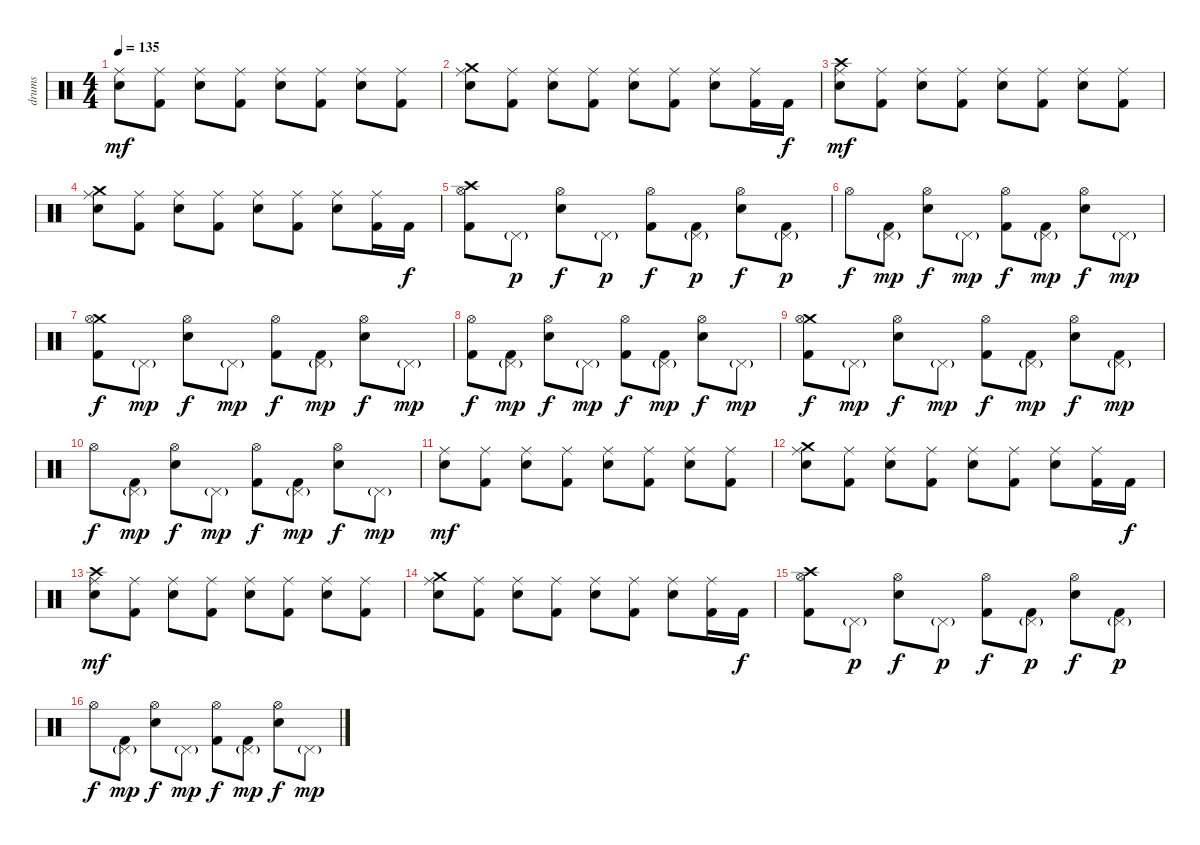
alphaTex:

\track ("drums" "drums") {instrument percussion}
\staff {score}
\articulation defaults
\ts (4 4)
\tempo 135
\clef neutral
\ks c
("Ride (middle)" "Snare (hit) 2").8{dy mf} ("Ride (middle)" "Kick (hit) 2").8 ("Ride (middle)" "Snare (hit) 2").8 ("Ride (middle)" "Kick (hit) 2").8 ("Ride (middle)" "Snare (hit) 2").8 ("Ride (middle)" "Kick (hit) 2").8 ("Ride (middle)" "Snare (hit) 2").8 ("Ride (middle)" "Kick (hit) 2").8 |
("Crash medium (hit)" "Ride (middle)" "Snare (hit) 2").8 ("Ride (middle)" "Kick (hit) 2").8 ("Ride (middle)" "Snare (hit) 2").8 ("Ride (middle)" "Kick (hit) 2").8 ("Ride (middle)" "Snare (hit) 2").8 ("Ride (middle)" "Kick (hit) 2").8 ("Ride (middle)" "Snare (hit) 2").8 ("Ride (middle)" "Kick (hit) 2").16 "Kick (hit) 2".16{dy f} |
("Crash high (hit)" "Ride (middle)" "Snare (hit) 2").8{dy mf} ("Ride (middle)" "Kick (hit) 2").8 ("Ride (middle)" "Snare (hit) 2").8 ("Ride (middle)" "Kick (hit) 2").8 ("Ride (middle)" "Snare (hit) 2").8 ("Ride (middle)" "Kick (hit) 2").8 ("Ride (middle)" "Snare (hit) 2").8 ("Ride (middle)" "Kick (hit) 2").8 |
("Crash medium (hit)" "Ride (middle)" "Snare (hit) 2").8 ("Ride (middle)" "Kick (hit) 2").8 ("Ride (middle)" "Snare (hit) 2").8 ("Ride (middle)" "Kick (hit) 2").8 ("Ride (middle)" "Snare (hit) 2").8 ("Ride (middle)" "Kick (hit) 2").8 ("Ride (middle)" "Snare (hit) 2").8 ("Ride (middle)" "Kick (hit) 2").16 "Kick (hit) 2".16{dy f} |
("Crash high (hit)" "Hi-Hat (open)" "Kick (hit) 2").8 "Pedal Hi-Hat (hit)"{g}.8{dy p} ("Hi-Hat (open)" "Snare (hit) 2").8{dy f} "Pedal Hi-Hat (hit)"{g}.8{dy p} ("Hi-Hat (open)" "Kick (hit) 2").8{dy f} ("Pedal Hi-Hat (hit)"{g} "Kick (hit) 2").8{dy p} ("Hi-Hat (open)" "Snare (hit) 2").8{dy f} ("Pedal Hi-Hat (hit)"{g} "Kick (hit) 2").8{dy p} |
"Hi-Hat (open)".8{dy f} ("Pedal Hi-Hat (hit)"{g} "Kick (hit) 2").8{dy mp} ("Hi-Hat (open)" "Snare (hit) 2").8{dy f} "Pedal Hi-Hat (hit)"{g}.8{dy mp} ("Hi-Hat (open)" "Kick (hit) 2").8{dy f} ("Pedal Hi-Hat (hit)"{g} "Kick (hit) 2").8{dy mp} ("Hi-Hat (open)" "Snare (hit) 2").8{dy f} "Pedal Hi-Hat (hit)"{g}.8{dy mp} |
("Crash medium (hit)" "Hi-Hat (open)" "Kick (hit) 2").8{dy f} "Pedal Hi-Hat (hit)"{g}.8{dy mp} ("Hi-Hat (open)" "Snare (hit) 2").8{dy f} "Pedal Hi-Hat (hit)"{g}.8{dy mp} ("Hi-Hat (open)" "Kick (hit) 2").8{dy f} ("Pedal Hi-Hat (hit)"{g} "Kick (hit) 2").8{dy mp} ("Hi-Hat (open)" "Snare (hit) 2").8{dy f} "Pedal Hi-Hat (hit)"{g}.8{dy mp} |
("Hi-Hat (open)" "Kick (hit) 2").8{dy f} ("Pedal Hi-Hat (hit)"{g} "Kick (hit) 2").8{dy mp} ("Hi-Hat (open)" "Snare (hit) 2").8{dy f} "Pedal Hi-Hat (hit)"{g}.8{dy mp} ("Hi-Hat (open)" "Kick (hit) 2").8{dy f} ("Pedal Hi-Hat (hit)"{g} "Kick (hit) 2").8{dy mp} ("Hi-Hat (open)" "Snare (hit) 2").8{dy f} "Pedal Hi-Hat (hit)"{g}.8{dy mp} |
("Crash medium (hit)" "Hi-Hat (open)" "Kick (hit) 2").8{dy f} "Pedal Hi-Hat (hit)"{g}.8{dy mp} ("Hi-Hat (open)" "Snare (hit) 2").8{dy f} "Pedal Hi-Hat (hit)"{g}.8{dy mp} ("Hi-Hat (open)" "Kick (hit) 2").8{dy f} ("Pedal Hi-Hat (hit)"{g} "Kick (hit) 2").8{dy mp} ("Hi-Hat (open)" "Snare (hit) 2").8{dy f} ("Pedal Hi-Hat (hit)"{g} "Kick (hit) 2").8{dy mp} |
"Hi-Hat (open)".8{dy f} ("Pedal Hi-Hat (hit)"{g} "Kick (hit) 2").8{dy mp} ("Hi-Hat (open)" "Snare (hit) 2").8{dy f} "Pedal Hi-Hat (hit)"{g}.8{dy mp} ("Hi-Hat (open)" "Kick (hit) 2").8{dy f} ("Pedal Hi-Hat (hit)"{g} "Kick (hit) 2").8{dy mp} ("Hi-Hat (open)" "Snare (hit) 2").8{dy f} "Pedal Hi-Hat (hit)"{g}.8{dy mp} |
("Ride (middle)" "Snare (hit) 2").8{dy mf} ("Ride (middle)" "Kick (hit) 2").8 ("Ride (middle)" "Snare (hit) 2").8 ("Ride (middle)" "Kick (hit) 2").8 ("Ride (middle)" "Snare (hit) 2").8 ("Ride (middle)" "Kick (hit) 2").8 ("Ride (middle)" "Snare (hit) 2").8 ("Ride (middle)" "Kick (hit) 2").8 |
("Crash medium (hit)" "Ride (middle)" "Snare (hit) 2").8 ("Ride (middle)" "Kick (hit) 2").8 ("Ride (middle)" "Snare (hit) 2").8 ("Ride (middle)" "Kick (hit) 2").8 ("Ride (middle)" "Snare (hit) 2").8 ("Ride (middle)" "Kick (hit) 2").8 ("Ride (middle)" "Snare (hit) 2").8 ("Ride (middle)" "Kick (hit) 2").16 "Kick (hit) 2".16{dy f} |
("Crash high (hit)" "Ride (middle)" "Snare (hit) 2").8{dy mf} ("Ride (middle)" "Kick (hit) 2").8 ("Ride (middle)" "Snare (hit) 2").8 ("Ride (middle)" "Kick (hit) 2").8 ("Ride (middle)" "Snare (hit) 2").8 ("Ride (middle)" "Kick (hit) 2").8 ("Ride (middle)" "Snare (hit) 2").8 ("Ride (middle)" "Kick (hit) 2").8 |
("Crash medium (hit)" "Ride (middle)" "Snare (hit) 2").8 ("Ride (middle)" "Kick (hit) 2").8 ("Ride (middle)" "Snare (hit) 2").8 ("Ride (middle)" "Kick (hit) 2").8 ("Ride (middle)" "Snare (hit) 2").8 ("Ride (middle)" "Kick (hit) 2").8 ("Ride (middle)" "Snare (hit) 2").8 ("Ride (middle)" "Kick (hit) 2").16 "Kick (hit) 2".16{dy f} |
("Crash high (hit)" "Hi-Hat (open)" "Kick (hit) 2").8 "Pedal Hi-Hat (hit)"{g}.8{dy p} ("Hi-Hat (open)" "Snare (hit) 2").8{dy f} "Pedal Hi-Hat (hit)"{g}.8{dy p} ("Hi-Hat (open)" "Kick (hit) 2").8{dy f} ("Pedal Hi-Hat (hit)"{g} "Kick (hit) 2").8{dy p} ("Hi-Hat (open)" "Snare (hit) 2").8{dy f} ("Pedal Hi-Hat (hit)"{g} "Kick (hit) 2").8{dy p} |
"Hi-Hat (open)".8{dy f} ("Pedal Hi-Hat (hit)"{g} "Kick (hit) 2").8{dy mp} ("Hi-Hat (open)" "Snare (hit) 2").8{dy f} "Pedal Hi-Hat (hit)"{g}.8{dy mp} ("Hi-Hat (open)" "Kick (hit) 2").8{dy f} ("Pedal Hi-Hat (hit)"{g} "Kick (hit) 2").8{dy mp} ("Hi-Hat (open)" "Snare (hit) 2").8{dy f} "Pedal Hi-Hat (hit)"{g}.8{dy mp}
